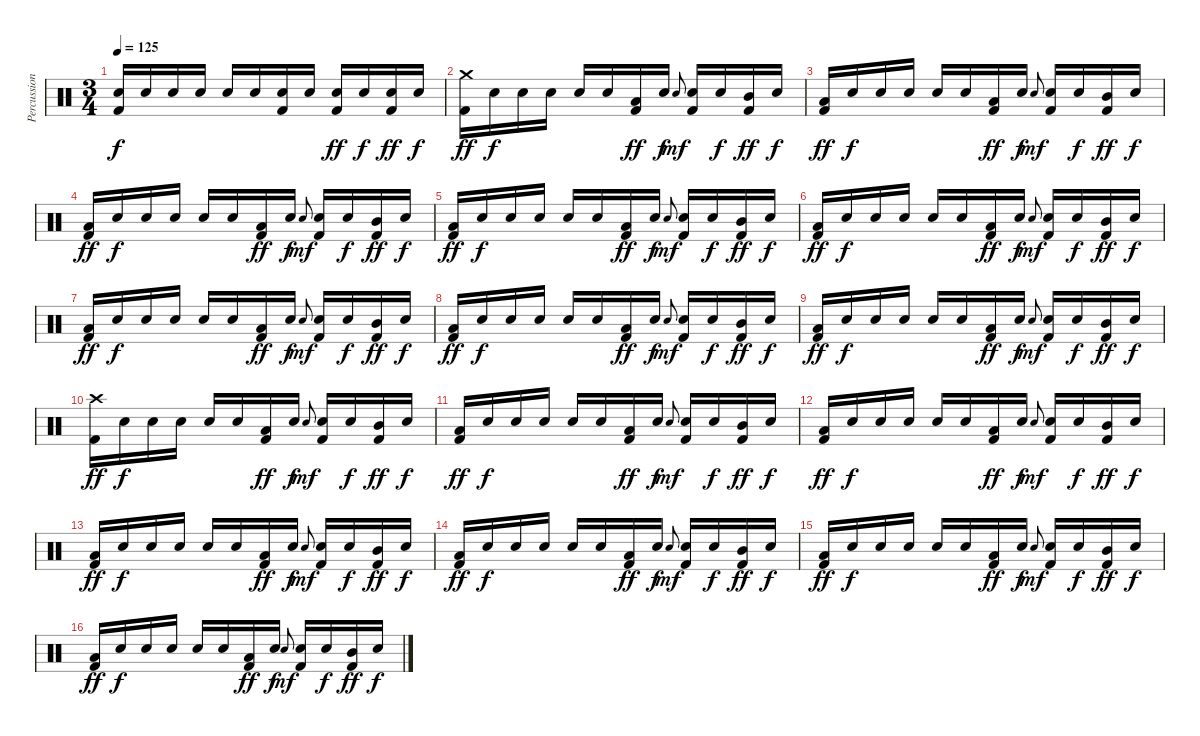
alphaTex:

\track ("Percussion" "Percussion") {instrument percussion}
\staff {score}
\articulation defaults
\ts (3 4)
\tempo 125
\clef neutral
\ks c
("Snare (hit) 2" "Kick (hit) 2").16{dy f} "Snare (hit) 2".16 "Snare (hit) 2".16 "Snare (hit) 2".16 "Snare (hit) 2".16 "Snare (hit) 2".16 ("Snare (hit) 2" "Kick (hit) 2").16 "Snare (hit) 2".16 ("Snare (hit) 2" "Kick (hit) 2").16{dy ff} "Snare (hit) 2".16{dy f} ("Snare (hit) 2" "Kick (hit) 2").16{dy ff} "Snare (hit) 2".16{dy f} |
("Crash medium (hit)" "Kick (hit) 2").16{dy ff} "Snare (hit) 2".16{dy f} "Snare (hit) 2".16 "Snare (hit) 2".16 "Snare (hit) 2".16 "Snare (hit) 2".16 ("Low Tom (hit)" "Kick (hit) 2").16{dy ff} "Snare (hit) 2".16{dy f} "Snare (hit) 2".8{gr onbeat dy mf} ("Snare (hit) 2" "Kick (hit) 2").16 "Snare (hit) 2".16{dy f} ("Mid Tom (hit)" "Kick (hit) 2").16{dy ff} "Snare (hit) 2".16{dy f} |
("Low Tom (hit)" "Kick (hit) 2").16{dy ff} "Snare (hit) 2".16{dy f} "Snare (hit) 2".16 "Snare (hit) 2".16 "Snare (hit) 2".16 "Snare (hit) 2".16 ("Low Tom (hit)" "Kick (hit) 2").16{dy ff} "Snare (hit) 2".16{dy f} "Snare (hit) 2".8{gr onbeat dy mf} ("Snare (hit) 2" "Kick (hit) 2").16 "Snare (hit) 2".16{dy f} ("Mid Tom (hit)" "Kick (hit) 2").16{dy ff} "Snare (hit) 2".16{dy f} |
("Low Tom (hit)" "Kick (hit) 2").16{dy ff} "Snare (hit) 2".16{dy f} "Snare (hit) 2".16 "Snare (hit) 2".16 "Snare (hit) 2".16 "Snare (hit) 2".16 ("Low Tom (hit)" "Kick (hit) 2").16{dy ff} "Snare (hit) 2".16{dy f} "Snare (hit) 2".8{gr onbeat dy mf} ("Snare (hit) 2" "Kick (hit) 2").16 "Snare (hit) 2".16{dy f} ("Mid Tom (hit)" "Kick (hit) 2").16{dy ff} "Snare (hit) 2".16{dy f} |
("Low Tom (hit)" "Kick (hit) 2").16{dy ff} "Snare (hit) 2".16{dy f} "Snare (hit) 2".16 "Snare (hit) 2".16 "Snare (hit) 2".16 "Snare (hit) 2".16 ("Low Tom (hit)" "Kick (hit) 2").16{dy ff} "Snare (hit) 2".16{dy f} "Snare (hit) 2".8{gr onbeat dy mf} ("Snare (hit) 2" "Kick (hit) 2").16 "Snare (hit) 2".16{dy f} ("Mid Tom (hit)" "Kick (hit) 2").16{dy ff} "Snare (hit) 2".16{dy f} |
("Low Tom (hit)" "Kick (hit) 2").16{dy ff} "Snare (hit) 2".16{dy f} "Snare (hit) 2".16 "Snare (hit) 2".16 "Snare (hit) 2".16 "Snare (hit) 2".16 ("Low Tom (hit)" "Kick (hit) 2").16{dy ff} "Snare (hit) 2".16{dy f} "Snare (hit) 2".8{gr onbeat dy mf} ("Snare (hit) 2" "Kick (hit) 2").16 "Snare (hit) 2".16{dy f} ("Mid Tom (hit)" "Kick (hit) 2").16{dy ff} "Snare (hit) 2".16{dy f} |
("Low Tom (hit)" "Kick (hit) 2").16{dy ff} "Snare (hit) 2".16{dy f} "Snare (hit) 2".16 "Snare (hit) 2".16 "Snare (hit) 2".16 "Snare (hit) 2".16 ("Low Tom (hit)" "Kick (hit) 2").16{dy ff} "Snare (hit) 2".16{dy f} "Snare (hit) 2".8{gr onbeat dy mf} ("Snare (hit) 2" "Kick (hit) 2").16 "Snare (hit) 2".16{dy f} ("Mid Tom (hit)" "Kick (hit) 2").16{dy ff} "Snare (hit) 2".16{dy f} |
("Low Tom (hit)" "Kick (hit) 2").16{dy ff} "Snare (hit) 2".16{dy f} "Snare (hit) 2".16 "Snare (hit) 2".16 "Snare (hit) 2".16 "Snare (hit) 2".16 ("Low Tom (hit)" "Kick (hit) 2").16{dy ff} "Snare (hit) 2".16{dy f} "Snare (hit) 2".8{gr onbeat dy mf} ("Snare (hit) 2" "Kick (hit) 2").16 "Snare (hit) 2".16{dy f} ("Mid Tom (hit)" "Kick (hit) 2").16{dy ff} "Snare (hit) 2".16{dy f} |
("Low Tom (hit)" "Kick (hit) 2").16{dy ff} "Snare (hit) 2".16{dy f} "Snare (hit) 2".16 "Snare (hit) 2".16 "Snare (hit) 2".16 "Snare (hit) 2".16 ("Low Tom (hit)" "Kick (hit) 2").16{dy ff} "Snare (hit) 2".16{dy f} "Snare (hit) 2".8{gr onbeat dy mf} ("Snare (hit) 2" "Kick (hit) 2").16 "Snare (hit) 2".16{dy f} ("Mid Tom (hit)" "Kick (hit) 2").16{dy ff} "Snare (hit) 2".16{dy f} |
("Crash high (hit)" "Kick (hit) 2").16{dy ff} "Snare (hit) 2".16{dy f} "Snare (hit) 2".16 "Snare (hit) 2".16 "Snare (hit) 2".16 "Snare (hit) 2".16 ("Low Tom (hit)" "Kick (hit) 2").16{dy ff} "Snare (hit) 2".16{dy f} "Snare (hit) 2".8{gr onbeat dy mf} ("Snare (hit) 2" "Kick (hit) 2").16 "Snare (hit) 2".16{dy f} ("Mid Tom (hit)" "Kick (hit) 2").16{dy ff} "Snare (hit) 2".16{dy f} |
("Low Tom (hit)" "Kick (hit) 2").16{dy ff} "Snare (hit) 2".16{dy f} "Snare (hit) 2".16 "Snare (hit) 2".16 "Snare (hit) 2".16 "Snare (hit) 2".16 ("Low Tom (hit)" "Kick (hit) 2").16{dy ff} "Snare (hit) 2".16{dy f} "Snare (hit) 2".8{gr onbeat dy mf} ("Snare (hit) 2" "Kick (hit) 2").16 "Snare (hit) 2".16{dy f} ("Mid Tom (hit)" "Kick (hit) 2").16{dy ff} "Snare (hit) 2".16{dy f} |
("Low Tom (hit)" "Kick (hit) 2").16{dy ff} "Snare (hit) 2".16{dy f} "Snare (hit) 2".16 "Snare (hit) 2".16 "Snare (hit) 2".16 "Snare (hit) 2".16 ("Low Tom (hit)" "Kick (hit) 2").16{dy ff} "Snare (hit) 2".16{dy f} "Snare (hit) 2".8{gr onbeat dy mf} ("Snare (hit) 2" "Kick (hit) 2").16 "Snare (hit) 2".16{dy f} ("Mid Tom (hit)" "Kick (hit) 2").16{dy ff} "Snare (hit) 2".16{dy f} |
("Low Tom (hit)" "Kick (hit) 2").16{dy ff} "Snare (hit) 2".16{dy f} "Snare (hit) 2".16 "Snare (hit) 2".16 "Snare (hit) 2".16 "Snare (hit) 2".16 ("Low Tom (hit)" "Kick (hit) 2").16{dy ff} "Snare (hit) 2".16{dy f} "Snare (hit) 2".8{gr onbeat dy mf} ("Snare (hit) 2" "Kick (hit) 2").16 "Snare (hit) 2".16{dy f} ("Mid Tom (hit)" "Kick (hit) 2").16{dy ff} "Snare (hit) 2".16{dy f} |
("Low Tom (hit)" "Kick (hit) 2").16{dy ff} "Snare (hit) 2".16{dy f} "Snare (hit) 2".16 "Snare (hit) 2".16 "Snare (hit) 2".16 "Snare (hit) 2".16 ("Low Tom (hit)" "Kick (hit) 2").16{dy ff} "Snare (hit) 2".16{dy f} "Snare (hit) 2".8{gr onbeat dy mf} ("Snare (hit) 2" "Kick (hit) 2").16 "Snare (hit) 2".16{dy f} ("Mid Tom (hit)" "Kick (hit) 2").16{dy ff} "Snare (hit) 2".16{dy f} |
("Low Tom (hit)" "Kick (hit) 2").16{dy ff} "Snare (hit) 2".16{dy f} "Snare (hit) 2".16 "Snare (hit) 2".16 "Snare (hit) 2".16 "Snare (hit) 2".16 ("Low Tom (hit)" "Kick (hit) 2").16{dy ff} "Snare (hit) 2".16{dy f} "Snare (hit) 2".8{gr onbeat dy mf} ("Snare (hit) 2" "Kick (hit) 2").16 "Snare (hit) 2".16{dy f} ("Mid Tom (hit)" "Kick (hit) 2").16{dy ff} "Snare (hit) 2".16{dy f} |
("Low Tom (hit)" "Kick (hit) 2").16{dy ff} "Snare (hit) 2".16{dy f} "Snare (hit) 2".16 "Snare (hit) 2".16 "Snare (hit) 2".16 "Snare (hit) 2".16 ("Low Tom (hit)" "Kick (hit) 2").16{dy ff} "Snare (hit) 2".16{dy f} "Snare (hit) 2".8{gr onbeat dy mf} ("Snare (hit) 2" "Kick (hit) 2").16 "Snare (hit) 2".16{dy f} ("Mid Tom (hit)" "Kick (hit) 2").16{dy ff} "Snare (hit) 2".16{dy f}
